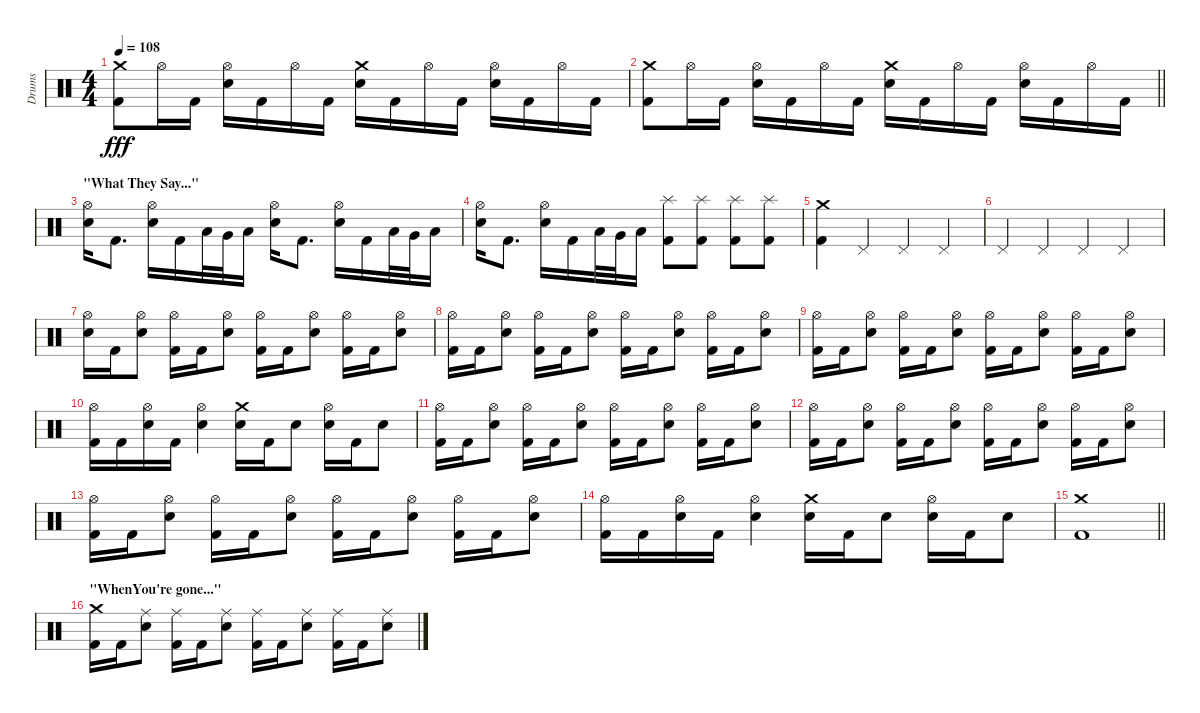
\track ("Drums" "Drums") {instrument percussion}
\staff {score}
\articulation defaults
\ts (4 4)
\tempo 108
\clef neutral
\ks c
("Crash medium (hit)" "Kick (hit) 2").8{dy fff} "Hi-Hat (open)".16 "Kick (hit) 2".16 ("Hi-Hat (open)" "Electric Snare (hit)").16 "Kick (hit) 2".16 "Hi-Hat (open)".16 "Kick (hit) 2".16 ("Crash medium (hit)" "Electric Snare (hit)").16 "Kick (hit) 2".16 "Hi-Hat (open)".16 "Kick (hit) 2".16 ("Hi-Hat (open)" "Electric Snare (hit)").16 "Kick (hit) 2".16 "Hi-Hat (open)".16 "Kick (hit) 2".16 |
\barLineRight lightlight
("Crash medium (hit)" "Kick (hit) 2").8 "Hi-Hat (open)".16 "Kick (hit) 2".16 ("Hi-Hat (open)" "Electric Snare (hit)").16 "Kick (hit) 2".16 "Hi-Hat (open)".16 "Kick (hit) 2".16 ("Crash medium (hit)" "Electric Snare (hit)").16 "Kick (hit) 2".16 "Hi-Hat (open)".16 "Kick (hit) 2".16 ("Hi-Hat (open)" "Electric Snare (hit)").16 "Kick (hit) 2".16 "Hi-Hat (open)".16 "Kick (hit) 2".16 |
\section ("" "\"What They Say...\"")
("Hi-Hat (open)" "Electric Snare (hit)").16 "Kick (hit) 2".8{d} ("Hi-Hat (open)" "Electric Snare (hit)").16 "Kick (hit) 2".16 "Low Tom (hit)".32 "Very Low Tom (hit)".32 "Low Floor Tom (hit)".16 ("Hi-Hat (open)" "Electric Snare (hit)").16 "Kick (hit) 2".8{d} ("Hi-Hat (open)" "Electric Snare (hit)").16 "Kick (hit) 2".16 "Low Tom (hit)".32 "Very Low Tom (hit)".32 "Low Floor Tom (hit)".16 |
("Hi-Hat (open)" "Electric Snare (hit)").16 "Kick (hit) 2".8{d} ("Hi-Hat (open)" "Electric Snare (hit)").16 "Kick (hit) 2".16 "Low Tom (hit)".32 "Very Low Tom (hit)".32 "Low Floor Tom (hit)".16 ("Splash (hit)" "Kick (hit) 2").8 ("Splash (hit)" "Kick (hit) 2").8 ("Splash (hit)" "Kick (hit) 2").8 ("Splash (hit)" "Kick (hit) 2").8 |
("Crash medium (hit)" "Kick (hit) 2").4 "Pedal Hi-Hat (hit)".4 "Pedal Hi-Hat (hit)".4 "Pedal Hi-Hat (hit)".4 |
"Pedal Hi-Hat (hit)".4 "Pedal Hi-Hat (hit)".4 "Pedal Hi-Hat (hit)".4 "Pedal Hi-Hat (hit)".4 |
("Hi-Hat (open)" "Electric Snare (hit)").16 "Kick (hit) 2".16 ("Hi-Hat (open)" "Electric Snare (hit)").8 ("Hi-Hat (open)" "Kick (hit) 2").16 "Kick (hit) 2".16 ("Hi-Hat (open)" "Electric Snare (hit)").8 ("Hi-Hat (open)" "Kick (hit) 2").16 "Kick (hit) 2".16 ("Hi-Hat (open)" "Electric Snare (hit)").8 ("Hi-Hat (open)" "Kick (hit) 2").16 "Kick (hit) 2".16 ("Hi-Hat (open)" "Electric Snare (hit)").8 |
("Hi-Hat (open)" "Kick (hit) 2").16 "Kick (hit) 2".16 ("Hi-Hat (open)" "Electric Snare (hit)").8 ("Hi-Hat (open)" "Kick (hit) 2").16 "Kick (hit) 2".16 ("Hi-Hat (open)" "Electric Snare (hit)").8 ("Hi-Hat (open)" "Kick (hit) 2").16 "Kick (hit) 2".16 ("Hi-Hat (open)" "Electric Snare (hit)").8 ("Hi-Hat (open)" "Kick (hit) 2").16 "Kick (hit) 2".16 ("Hi-Hat (open)" "Electric Snare (hit)").8 |
("Hi-Hat (open)" "Kick (hit) 2").16 "Kick (hit) 2".16 ("Hi-Hat (open)" "Electric Snare (hit)").8 ("Hi-Hat (open)" "Kick (hit) 2").16 "Kick (hit) 2".16 ("Hi-Hat (open)" "Electric Snare (hit)").8 ("Hi-Hat (open)" "Kick (hit) 2").16 "Kick (hit) 2".16 ("Hi-Hat (open)" "Electric Snare (hit)").8 ("Hi-Hat (open)" "Kick (hit) 2").16 "Kick (hit) 2".16 ("Hi-Hat (open)" "Electric Snare (hit)").8 |
("Hi-Hat (open)" "Kick (hit) 2").16 "Kick (hit) 2".16 ("Hi-Hat (open)" "Electric Snare (hit)").16 "Kick (hit) 2".16 ("Hi-Hat (open)" "Electric Snare (hit)").4 ("Crash medium (hit)" "Electric Snare (hit)").16 "Kick (hit) 2".16 "Electric Snare (hit)".8 ("Hi-Hat (open)" "Electric Snare (hit)").16 "Kick (hit) 2".16 "Electric Snare (hit)".8 |
("Hi-Hat (open)" "Kick (hit) 2").16 "Kick (hit) 2".16 ("Hi-Hat (open)" "Electric Snare (hit)").8 ("Hi-Hat (open)" "Kick (hit) 2").16 "Kick (hit) 2".16 ("Hi-Hat (open)" "Electric Snare (hit)").8 ("Hi-Hat (open)" "Kick (hit) 2").16 "Kick (hit) 2".16 ("Hi-Hat (open)" "Electric Snare (hit)").8 ("Hi-Hat (open)" "Kick (hit) 2").16 "Kick (hit) 2".16 ("Hi-Hat (open)" "Electric Snare (hit)").8 |
("Hi-Hat (open)" "Kick (hit) 2").16 "Kick (hit) 2".16 ("Hi-Hat (open)" "Electric Snare (hit)").8 ("Hi-Hat (open)" "Kick (hit) 2").16 "Kick (hit) 2".16 ("Hi-Hat (open)" "Electric Snare (hit)").8 ("Hi-Hat (open)" "Kick (hit) 2").16 "Kick (hit) 2".16 ("Hi-Hat (open)" "Electric Snare (hit)").8 ("Hi-Hat (open)" "Kick (hit) 2").16 "Kick (hit) 2".16 ("Hi-Hat (open)" "Electric Snare (hit)").8 |
("Hi-Hat (open)" "Kick (hit) 2").16 "Kick (hit) 2".16 ("Hi-Hat (open)" "Electric Snare (hit)").8 ("Hi-Hat (open)" "Kick (hit) 2").16 "Kick (hit) 2".16 ("Hi-Hat (open)" "Electric Snare (hit)").8 ("Hi-Hat (open)" "Kick (hit) 2").16 "Kick (hit) 2".16 ("Hi-Hat (open)" "Electric Snare (hit)").8 ("Hi-Hat (open)" "Kick (hit) 2").16 "Kick (hit) 2".16 ("Hi-Hat (open)" "Electric Snare (hit)").8 |
("Hi-Hat (open)" "Kick (hit) 2").16 "Kick (hit) 2".16 ("Hi-Hat (open)" "Electric Snare (hit)").16 "Kick (hit) 2".16 ("Hi-Hat (open)" "Electric Snare (hit)").4 ("Crash medium (hit)" "Electric Snare (hit)").16 "Kick (hit) 2".16 "Electric Snare (hit)".8 ("Hi-Hat (open)" "Electric Snare (hit)").16 "Kick (hit) 2".16 "Electric Snare (hit)".8 |
\barLineRight lightlight
("Crash medium (hit)" "Kick (hit) 2").1 |
\section ("" "\"WhenYou're gone...\"")
("Crash medium (hit)" "Kick (hit) 2").16 "Kick (hit) 2".16 ("Ride (middle)" "Electric Snare (hit)").8 ("Ride (middle)" "Kick (hit) 2").16 "Kick (hit) 2".16 ("Ride (middle)" "Electric Snare (hit)").8 ("Ride (middle)" "Kick (hit) 2").16 "Kick (hit) 2".16 ("Ride (middle)" "Electric Snare (hit)").8 ("Ride (middle)" "Kick (hit) 2").16 "Kick (hit) 2".16 ("Ride (middle)" "Electric Snare (hit)").8
